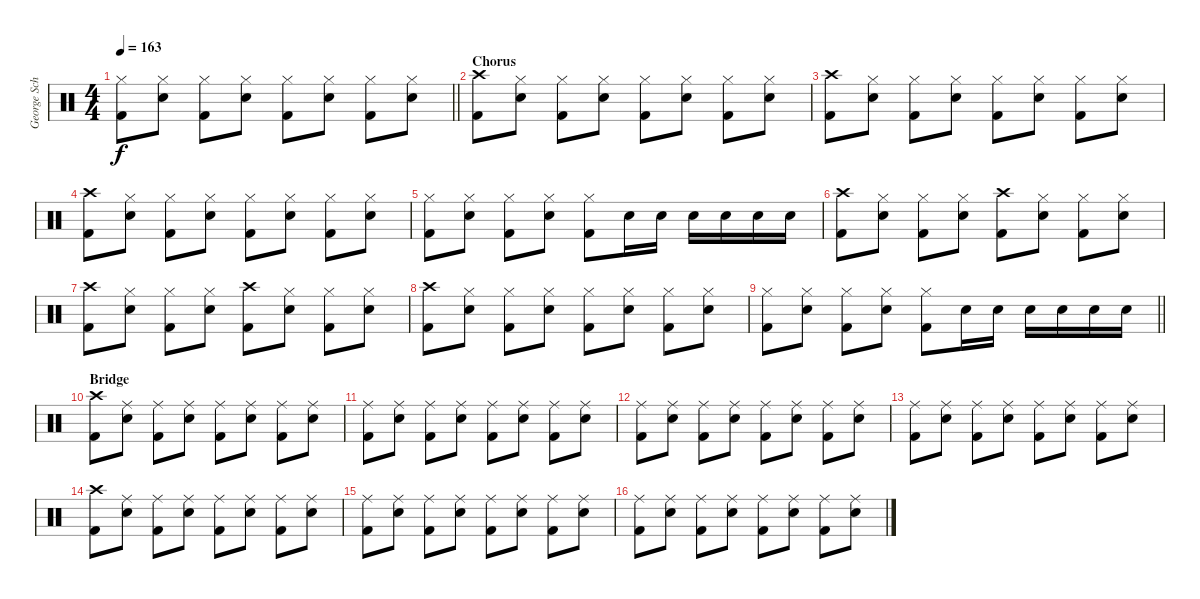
\track ("George Schwindt" "George Sch") {instrument percussion}
\staff {score}
\articulation defaults
\ts (4 4)
\tempo 163
\clef neutral
\barLineRight lightlight
\ks c
("Hi-Hat (closed)" "Kick (hit) 2").8{dy f} ("Hi-Hat (closed)" "Snare (hit) 2").8 ("Hi-Hat (closed)" "Kick (hit) 2").8 ("Hi-Hat (closed)" "Snare (hit) 2").8 ("Hi-Hat (closed)" "Kick (hit) 2").8 ("Hi-Hat (closed)" "Snare (hit) 2").8 ("Hi-Hat (closed)" "Kick (hit) 2").8 ("Hi-Hat (closed)" "Snare (hit) 2").8 |
\section ("" "Chorus")
("Crash high (hit)" "Kick (hit) 2").8 ("Hi-Hat (closed)" "Snare (hit) 2").8 ("Hi-Hat (closed)" "Kick (hit) 2").8 ("Hi-Hat (closed)" "Snare (hit) 2").8 ("Hi-Hat (closed)" "Kick (hit) 2").8 ("Hi-Hat (closed)" "Snare (hit) 2").8 ("Hi-Hat (closed)" "Kick (hit) 2").8 ("Hi-Hat (closed)" "Snare (hit) 2").8 |
("Crash high (hit)" "Kick (hit) 2").8 ("Hi-Hat (closed)" "Snare (hit) 2").8 ("Hi-Hat (closed)" "Kick (hit) 2").8 ("Hi-Hat (closed)" "Snare (hit) 2").8 ("Hi-Hat (closed)" "Kick (hit) 2").8 ("Hi-Hat (closed)" "Snare (hit) 2").8 ("Hi-Hat (closed)" "Kick (hit) 2").8 ("Hi-Hat (closed)" "Snare (hit) 2").8 |
("Crash high (hit)" "Kick (hit) 2").8 ("Hi-Hat (closed)" "Snare (hit) 2").8 ("Hi-Hat (closed)" "Kick (hit) 2").8 ("Hi-Hat (closed)" "Snare (hit) 2").8 ("Hi-Hat (closed)" "Kick (hit) 2").8 ("Hi-Hat (closed)" "Snare (hit) 2").8 ("Hi-Hat (closed)" "Kick (hit) 2").8 ("Hi-Hat (closed)" "Snare (hit) 2").8 |
("Hi-Hat (closed)" "Kick (hit) 2").8 ("Hi-Hat (closed)" "Snare (hit) 2").8 ("Hi-Hat (closed)" "Kick (hit) 2").8 ("Hi-Hat (closed)" "Snare (hit) 2").8 ("Hi-Hat (closed)" "Kick (hit) 2").8 "Snare (hit) 2".16 "Snare (hit) 2".16 "Snare (hit) 2".16 "Snare (hit) 2".16 "Snare (hit) 2".16 "Snare (hit) 2".16 |
("Crash high (hit)" "Kick (hit) 2").8 ("Hi-Hat (closed)" "Snare (hit) 2").8 ("Hi-Hat (closed)" "Kick (hit) 2").8 ("Hi-Hat (closed)" "Snare (hit) 2").8 ("Crash high (hit)" "Kick (hit) 2").8 ("Hi-Hat (closed)" "Snare (hit) 2").8 ("Hi-Hat (closed)" "Kick (hit) 2").8 ("Hi-Hat (closed)" "Snare (hit) 2").8 |
("Crash high (hit)" "Kick (hit) 2").8 ("Hi-Hat (closed)" "Snare (hit) 2").8 ("Hi-Hat (closed)" "Kick (hit) 2").8 ("Hi-Hat (closed)" "Snare (hit) 2").8 ("Crash high (hit)" "Kick (hit) 2").8 ("Hi-Hat (closed)" "Snare (hit) 2").8 ("Hi-Hat (closed)" "Kick (hit) 2").8 ("Hi-Hat (closed)" "Snare (hit) 2").8 |
("Crash high (hit)" "Kick (hit) 2").8 ("Hi-Hat (closed)" "Snare (hit) 2").8 ("Hi-Hat (closed)" "Kick (hit) 2").8 ("Hi-Hat (closed)" "Snare (hit) 2").8 ("Hi-Hat (closed)" "Kick (hit) 2").8 ("Hi-Hat (closed)" "Snare (hit) 2").8 ("Hi-Hat (closed)" "Kick (hit) 2").8 ("Hi-Hat (closed)" "Snare (hit) 2").8 |
\barLineRight lightlight
("Hi-Hat (closed)" "Kick (hit) 2").8 ("Hi-Hat (closed)" "Snare (hit) 2").8 ("Hi-Hat (closed)" "Kick (hit) 2").8 ("Hi-Hat (closed)" "Snare (hit) 2").8 ("Hi-Hat (closed)" "Kick (hit) 2").8 "Snare (hit) 2".16 "Snare (hit) 2".16 "Snare (hit) 2".16 "Snare (hit) 2".16 "Snare (hit) 2".16 "Snare (hit) 2".16 |
\section ("" "Bridge")
("Crash high (hit)" "Kick (hit) 2").8 ("Ride (middle)" "Snare (hit) 2").8 ("Ride (middle)" "Kick (hit) 2").8 ("Ride (middle)" "Snare (hit) 2").8 ("Ride (middle)" "Kick (hit) 2").8 ("Ride (middle)" "Snare (hit) 2").8 ("Ride (middle)" "Kick (hit) 2").8 ("Ride (middle)" "Snare (hit) 2").8 |
("Ride (middle)" "Kick (hit) 2").8 ("Ride (middle)" "Snare (hit) 2").8 ("Ride (middle)" "Kick (hit) 2").8 ("Ride (middle)" "Snare (hit) 2").8 ("Ride (middle)" "Kick (hit) 2").8 ("Ride (middle)" "Snare (hit) 2").8 ("Ride (middle)" "Kick (hit) 2").8 ("Ride (middle)" "Snare (hit) 2").8 |
("Ride (middle)" "Kick (hit) 2").8 ("Ride (middle)" "Snare (hit) 2").8 ("Ride (middle)" "Kick (hit) 2").8 ("Ride (middle)" "Snare (hit) 2").8 ("Ride (middle)" "Kick (hit) 2").8 ("Ride (middle)" "Snare (hit) 2").8 ("Ride (middle)" "Kick (hit) 2").8 ("Ride (middle)" "Snare (hit) 2").8 |
("Ride (middle)" "Kick (hit) 2").8 ("Ride (middle)" "Snare (hit) 2").8 ("Ride (middle)" "Kick (hit) 2").8 ("Ride (middle)" "Snare (hit) 2").8 ("Ride (middle)" "Kick (hit) 2").8 ("Ride (middle)" "Snare (hit) 2").8 ("Ride (middle)" "Kick (hit) 2").8 ("Ride (middle)" "Snare (hit) 2").8 |
("Crash high (hit)" "Kick (hit) 2").8 ("Ride (middle)" "Snare (hit) 2").8 ("Ride (middle)" "Kick (hit) 2").8 ("Ride (middle)" "Snare (hit) 2").8 ("Ride (middle)" "Kick (hit) 2").8 ("Ride (middle)" "Snare (hit) 2").8 ("Ride (middle)" "Kick (hit) 2").8 ("Ride (middle)" "Snare (hit) 2").8 |
("Ride (middle)" "Kick (hit) 2").8 ("Ride (middle)" "Snare (hit) 2").8 ("Ride (middle)" "Kick (hit) 2").8 ("Ride (middle)" "Snare (hit) 2").8 ("Ride (middle)" "Kick (hit) 2").8 ("Ride (middle)" "Snare (hit) 2").8 ("Ride (middle)" "Kick (hit) 2").8 ("Ride (middle)" "Snare (hit) 2").8 |
("Ride (middle)" "Kick (hit) 2").8 ("Ride (middle)" "Snare (hit) 2").8 ("Ride (middle)" "Kick (hit) 2").8 ("Ride (middle)" "Snare (hit) 2").8 ("Ride (middle)" "Kick (hit) 2").8 ("Ride (middle)" "Snare (hit) 2").8 ("Ride (middle)" "Kick (hit) 2").8 ("Ride (middle)" "Snare (hit) 2").8
